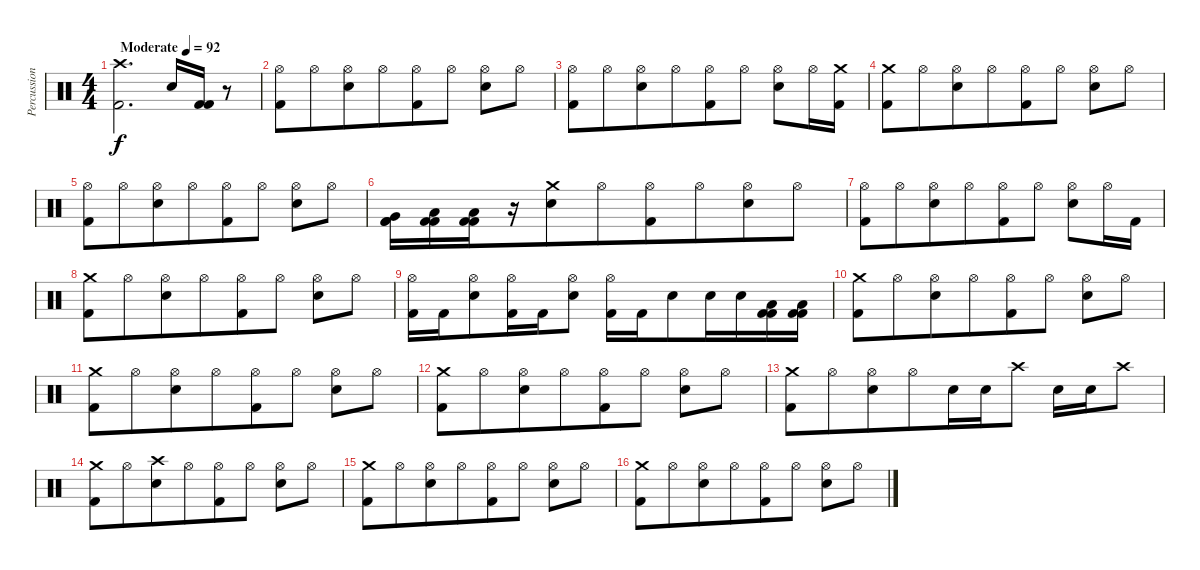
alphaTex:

\track ("Percussion" "Percussion") {instrument percussion}
\staff {score}
\articulation defaults
\ts (4 4)
\tempo (92 "Moderate")
\clef neutral
\ks c
("Crash high (hit)" "Kick (hit) 2").2{d dy f} "Electric Snare (hit)".16 ("Kick (hit) 2" "Kick (hit) 2").16 r.8 |
("Hi-Hat (open)" "Kick (hit) 2").8 "Hi-Hat (open)".8{beam merge} ("Hi-Hat (open)" "Electric Snare (hit)").8{beam merge} "Hi-Hat (open)".8{beam merge} ("Hi-Hat (open)" "Kick (hit) 2").8 "Hi-Hat (open)".8 ("Hi-Hat (open)" "Electric Snare (hit)").8 "Hi-Hat (open)".8 |
("Hi-Hat (open)" "Kick (hit) 2").8 "Hi-Hat (open)".8{beam merge} ("Hi-Hat (open)" "Electric Snare (hit)").8{beam merge} "Hi-Hat (open)".8{beam merge} ("Hi-Hat (open)" "Kick (hit) 2").8 "Hi-Hat (open)".8 ("Hi-Hat (open)" "Electric Snare (hit)").8 "Hi-Hat (open)".16 ("Crash medium (hit)" "Kick (hit) 2").16 |
("Crash medium (hit)" "Kick (hit) 2").8 "Hi-Hat (open)".8{beam merge} ("Hi-Hat (open)" "Electric Snare (hit)").8{beam merge} "Hi-Hat (open)".8{beam merge} ("Hi-Hat (open)" "Kick (hit) 2").8 "Hi-Hat (open)".8 ("Hi-Hat (open)" "Electric Snare (hit)").8 "Hi-Hat (open)".8 |
("Hi-Hat (open)" "Kick (hit) 2").8 "Hi-Hat (open)".8{beam merge} ("Hi-Hat (open)" "Electric Snare (hit)").8{beam merge} "Hi-Hat (open)".8{beam merge} ("Hi-Hat (open)" "Kick (hit) 2").8 "Hi-Hat (open)".8 ("Hi-Hat (open)" "Electric Snare (hit)").8 "Hi-Hat (open)".8 |
("Very Low Tom (hit)" "Kick (hit) 2" "Kick (hit) 2").16{beam merge} ("Low Floor Tom (hit)" "Kick (hit) 2" "Kick (hit) 2").16 ("Low Floor Tom (hit)" "Kick (hit) 2" "Kick (hit) 2").16{beam merge} r.16 ("Crash medium (hit)" "Electric Snare (hit)").8 "Hi-Hat (open)".8{beam merge} ("Hi-Hat (open)" "Kick (hit) 2").8 "Hi-Hat (open)".8{beam merge} ("Hi-Hat (open)" "Electric Snare (hit)").8 "Hi-Hat (open)".8 |
("Hi-Hat (open)" "Kick (hit) 2").8 "Hi-Hat (open)".8{beam merge} ("Hi-Hat (open)" "Electric Snare (hit)").8{beam merge} "Hi-Hat (open)".8{beam merge} ("Hi-Hat (open)" "Kick (hit) 2").8 "Hi-Hat (open)".8 ("Hi-Hat (open)" "Electric Snare (hit)").8 "Hi-Hat (open)".16 "Kick (hit) 2".16 |
("Crash medium (hit)" "Kick (hit) 2").8 "Hi-Hat (open)".8{beam merge} ("Hi-Hat (open)" "Electric Snare (hit)").8{beam merge} "Hi-Hat (open)".8{beam merge} ("Hi-Hat (open)" "Kick (hit) 2").8 "Hi-Hat (open)".8 ("Hi-Hat (open)" "Electric Snare (hit)").8 "Hi-Hat (open)".8 |
("Hi-Hat (open)" "Kick (hit) 2").16 "Kick (hit) 2".16{beam merge} ("Hi-Hat (open)" "Electric Snare (hit)").8{beam merge} ("Hi-Hat (open)" "Kick (hit) 2").16 "Kick (hit) 2".16 ("Hi-Hat (open)" "Electric Snare (hit)").8 ("Hi-Hat (open)" "Kick (hit) 2").16{beam merge} "Kick (hit) 2".16 "Electric Snare (hit)".8{beam merge} "Electric Snare (hit)".16 "Electric Snare (hit)".16{beam merge} ("Low Floor Tom (hit)" "Kick (hit) 2" "Kick (hit) 2").16 ("Low Floor Tom (hit)" "Kick (hit) 2" "Kick (hit) 2").16 |
("Crash medium (hit)" "Kick (hit) 2").8 "Hi-Hat (open)".8{beam merge} ("Hi-Hat (open)" "Electric Snare (hit)").8{beam merge} "Hi-Hat (open)".8{beam merge} ("Hi-Hat (open)" "Kick (hit) 2").8 "Hi-Hat (open)".8 ("Hi-Hat (open)" "Electric Snare (hit)").8 "Hi-Hat (open)".8 |
("Crash medium (hit)" "Kick (hit) 2").8 "Hi-Hat (open)".8{beam merge} ("Hi-Hat (open)" "Electric Snare (hit)").8{beam merge} "Hi-Hat (open)".8{beam merge} ("Hi-Hat (open)" "Kick (hit) 2").8 "Hi-Hat (open)".8 ("Hi-Hat (open)" "Electric Snare (hit)").8 "Hi-Hat (open)".8 |
("Crash medium (hit)" "Kick (hit) 2").8 "Hi-Hat (open)".8{beam merge} ("Hi-Hat (open)" "Electric Snare (hit)").8{beam merge} "Hi-Hat (open)".8{beam merge} ("Hi-Hat (open)" "Kick (hit) 2").8 "Hi-Hat (open)".8 ("Hi-Hat (open)" "Electric Snare (hit)").8 "Hi-Hat (open)".8 |
("Crash medium (hit)" "Kick (hit) 2").8 "Hi-Hat (open)".8{beam merge} ("Hi-Hat (open)" "Electric Snare (hit)").8 "Hi-Hat (open)".8{beam merge} "Electric Snare (hit)".16 "Electric Snare (hit)".16{beam merge} "Crash high (hit)".8 "Electric Snare (hit)".16{beam merge} "Electric Snare (hit)".16 "Crash high (hit)".8 |
("Crash medium (hit)" "Kick (hit) 2").8 "Hi-Hat (open)".8{beam merge} ("Crash high (hit)" "Electric Snare (hit)").8{beam merge} "Hi-Hat (open)".8{beam merge} ("Hi-Hat (open)" "Kick (hit) 2").8 "Hi-Hat (open)".8 ("Hi-Hat (open)" "Electric Snare (hit)").8 "Hi-Hat (open)".8 |
("Crash medium (hit)" "Kick (hit) 2").8 "Hi-Hat (open)".8{beam merge} ("Hi-Hat (open)" "Electric Snare (hit)").8{beam merge} "Hi-Hat (open)".8{beam merge} ("Hi-Hat (open)" "Kick (hit) 2").8 "Hi-Hat (open)".8 ("Hi-Hat (open)" "Electric Snare (hit)").8 "Hi-Hat (open)".8 |
("Crash medium (hit)" "Kick (hit) 2").8 "Hi-Hat (open)".8{beam merge} ("Hi-Hat (open)" "Electric Snare (hit)").8{beam merge} "Hi-Hat (open)".8{beam merge} ("Hi-Hat (open)" "Kick (hit) 2").8 "Hi-Hat (open)".8 ("Hi-Hat (open)" "Electric Snare (hit)").8 "Hi-Hat (open)".8
